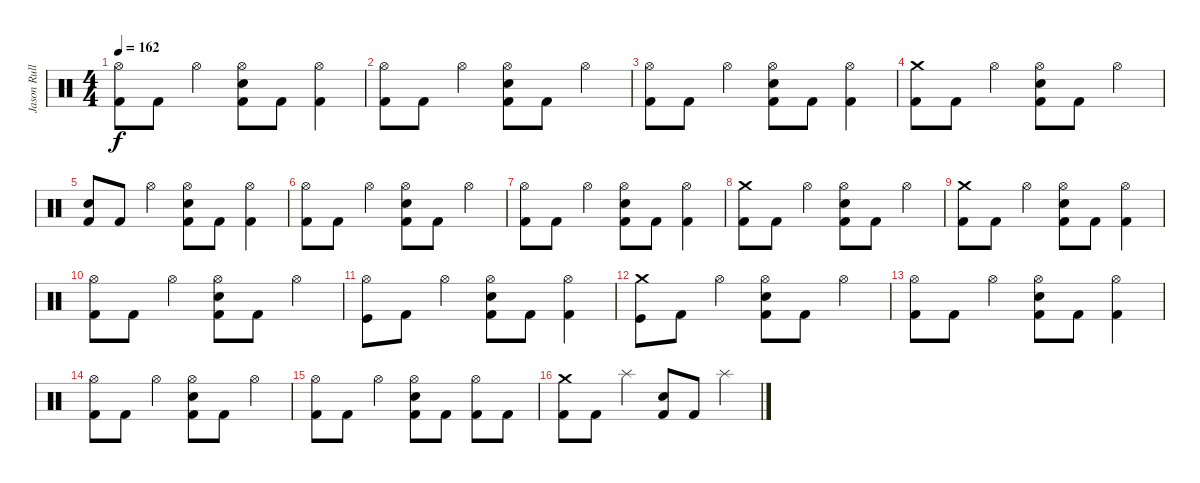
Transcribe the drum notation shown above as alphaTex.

\track ("Jason Rullo" "Jason Rull") {instrument percussion}
\staff {score}
\articulation defaults
\ts (4 4)
\tempo 162
\clef neutral
\ks c
("Hi-Hat (open)" "Kick (hit) 2").8{dy f} "Kick (hit) 2".8 "Hi-Hat (open)".4 ("Kick (hit) 2" "Electric Snare (hit)" "Hi-Hat (open)").8 "Kick (hit) 2".8 ("Kick (hit) 2" "Hi-Hat (open)").4 |
("Hi-Hat (open)" "Kick (hit) 2").8 "Kick (hit) 2".8 "Hi-Hat (open)".4 ("Kick (hit) 2" "Electric Snare (hit)" "Hi-Hat (open)").8 "Kick (hit) 2".8 "Hi-Hat (open)".4 |
("Hi-Hat (open)" "Kick (hit) 2").8 "Kick (hit) 2".8 "Hi-Hat (open)".4 ("Kick (hit) 2" "Electric Snare (hit)" "Hi-Hat (open)").8 "Kick (hit) 2".8 ("Kick (hit) 2" "Hi-Hat (open)").4 |
("Crash medium (hit)" "Kick (hit) 2").8 "Kick (hit) 2".8 "Hi-Hat (open)".4 ("Kick (hit) 2" "Electric Snare (hit)" "Hi-Hat (open)").8 "Kick (hit) 2".8 "Hi-Hat (open)".4 |
("Kick (hit) 2" "Electric Snare (hit)").8 "Kick (hit) 2".8 "Hi-Hat (open)".4 ("Kick (hit) 2" "Electric Snare (hit)" "Hi-Hat (open)").8 "Kick (hit) 2".8 ("Kick (hit) 2" "Hi-Hat (open)").4 |
("Hi-Hat (open)" "Kick (hit) 2").8 "Kick (hit) 2".8 "Hi-Hat (open)".4 ("Kick (hit) 2" "Electric Snare (hit)" "Hi-Hat (open)").8 "Kick (hit) 2".8 "Hi-Hat (open)".4 |
("Hi-Hat (open)" "Kick (hit) 2").8 "Kick (hit) 2".8 "Hi-Hat (open)".4 ("Kick (hit) 2" "Electric Snare (hit)" "Hi-Hat (open)").8 "Kick (hit) 2".8 ("Kick (hit) 2" "Hi-Hat (open)").4 |
("Crash medium (hit)" "Kick (hit) 2").8 "Kick (hit) 2".8 "Hi-Hat (open)".4 ("Kick (hit) 2" "Electric Snare (hit)" "Hi-Hat (open)").8 "Kick (hit) 2".8 "Hi-Hat (open)".4 |
("Crash medium (hit)" "Kick (hit) 2").8 "Kick (hit) 2".8 "Hi-Hat (open)".4 ("Kick (hit) 2" "Electric Snare (hit)" "Hi-Hat (open)").8 "Kick (hit) 2".8 ("Kick (hit) 2" "Hi-Hat (open)").4 |
("Hi-Hat (open)" "Kick (hit) 2").8 "Kick (hit) 2".8 "Hi-Hat (open)".4 ("Kick (hit) 2" "Electric Snare (hit)" "Hi-Hat (open)").8 "Kick (hit) 2".8 "Hi-Hat (open)".4 |
("Hi-Hat (open)" "Kick (hit)").8 "Kick (hit) 2".8 "Hi-Hat (open)".4 ("Kick (hit) 2" "Electric Snare (hit)" "Hi-Hat (open)").8 "Kick (hit) 2".8 ("Kick (hit) 2" "Hi-Hat (open)").4 |
("Crash medium (hit)" "Kick (hit)").8 "Kick (hit) 2".8 "Hi-Hat (open)".4 ("Kick (hit) 2" "Electric Snare (hit)" "Hi-Hat (open)").8 "Kick (hit) 2".8 "Hi-Hat (open)".4 |
("Hi-Hat (open)" "Kick (hit) 2").8 "Kick (hit) 2".8 "Hi-Hat (open)".4 ("Kick (hit) 2" "Electric Snare (hit)" "Hi-Hat (open)").8 "Kick (hit) 2".8 ("Kick (hit) 2" "Hi-Hat (open)").4 |
("Hi-Hat (open)" "Kick (hit) 2").8 "Kick (hit) 2".8 "Hi-Hat (open)".4 ("Kick (hit) 2" "Electric Snare (hit)" "Hi-Hat (open)").8 "Kick (hit) 2".8 "Hi-Hat (open)".4 |
("Hi-Hat (open)" "Kick (hit) 2").8 "Kick (hit) 2".8 "Hi-Hat (open)".4 ("Kick (hit) 2" "Electric Snare (hit)" "Hi-Hat (open)").8 "Kick (hit) 2".8 ("Kick (hit) 2" "Hi-Hat (open)").8 "Kick (hit) 2".8 |
("Crash medium (hit)" "Kick (hit) 2").8 "Kick (hit) 2".8 "Splash (hit)".4 ("Kick (hit) 2" "Electric Snare (hit)").8 "Kick (hit) 2".8 "Splash (hit)".4
